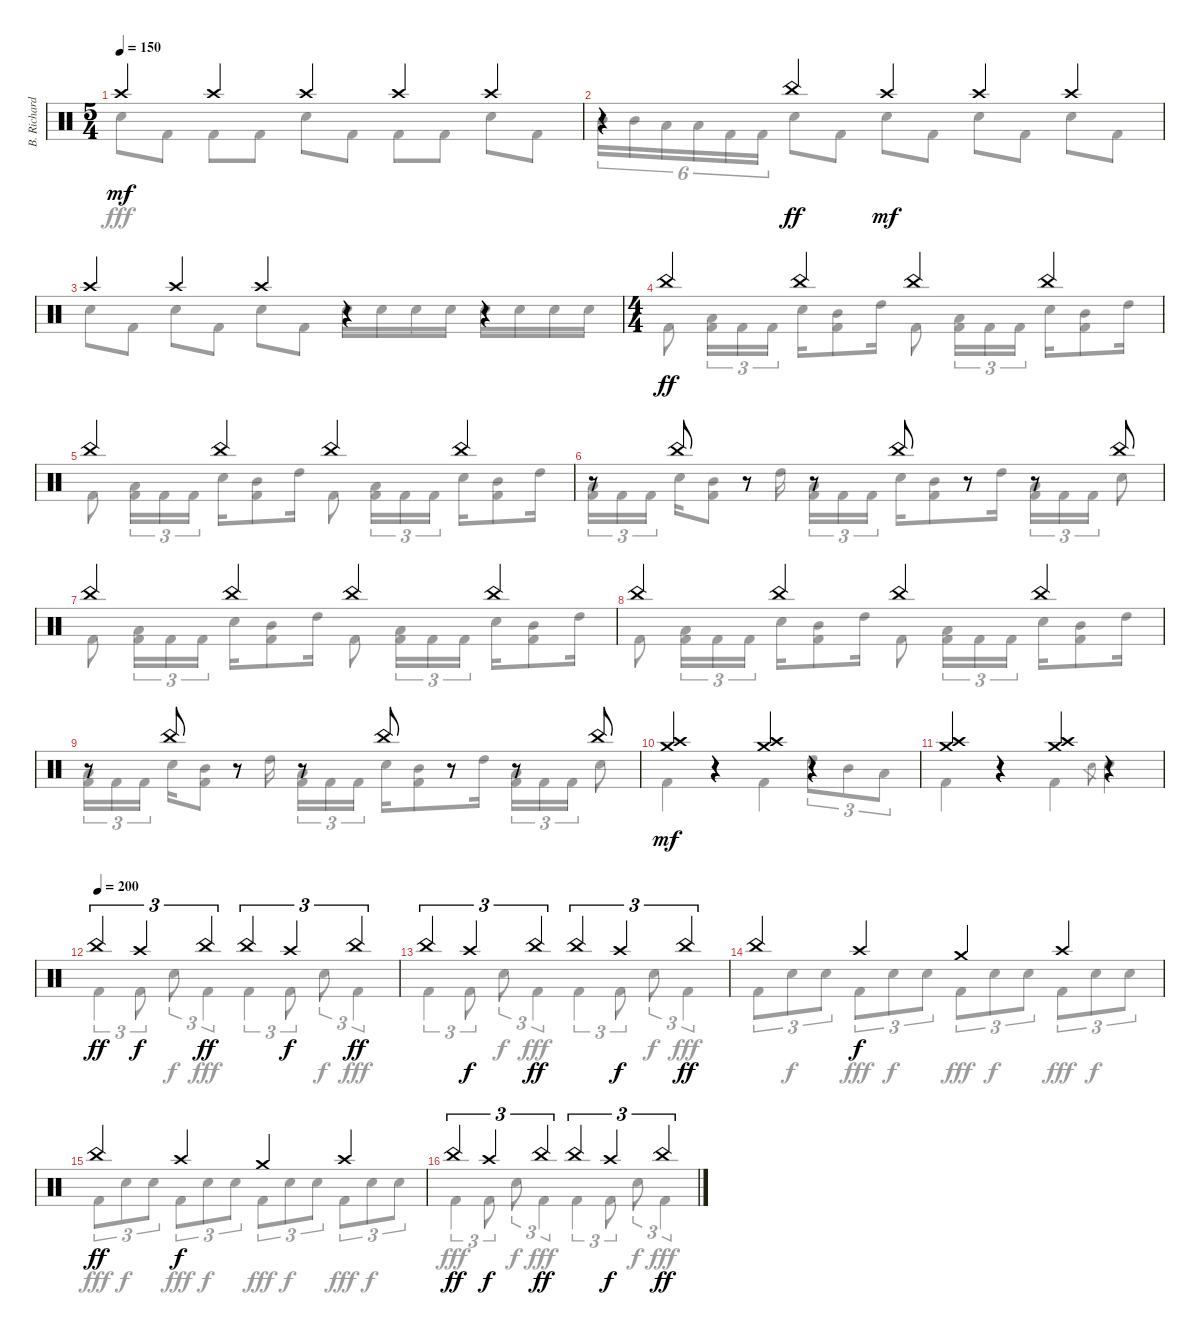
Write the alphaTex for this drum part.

\track ("B. Richardson Drums" "B. Richard") {instrument percussion}
\staff {score}
\articulation defaults
\voice
\ts (5 4)
\tempo 150
\clef neutral
\ks c "Crash high (hit)".4{dy mf} "Crash high (hit)".4 "Crash high (hit)".4 "Crash high (hit)".4 "Crash high (hit)".4
|
r.4 "China (hit)".4{dy ff} "Crash high (hit)".4{dy mf} "Crash high (hit)".4 "Crash high (hit)".4 |
"Crash high (hit)".4 "Crash high (hit)".4 "Crash high (hit)".4 r.4 r.4 |
\ts (4 4)
"China (hit)".4{dy ff} "China (hit)".4 "China (hit)".4 "China (hit)".4 |
"China (hit)".4 "China (hit)".4 "China (hit)".4 "China (hit)".4 |
r.8 "China (hit)".8 r.8 r.8 "China (hit)".8 r.8 r.8 "China (hit)".8 |
"China (hit)".4 "China (hit)".4 "China (hit)".4 "China (hit)".4 |
"China (hit)".4 "China (hit)".4 "China (hit)".4 "China (hit)".4 |
r.8 "China (hit)".8 r.8 r.8 "China (hit)".8 r.8 r.8 "China (hit)".8 |
("Crash high (hit)" "Crash medium (hit)").4{dy mf} r.4 ("Crash high (hit)" "Crash medium (hit)").4 r.4 |
("Crash high (hit)" "Crash medium (hit)").4 r.4 ("Crash high (hit)" "Crash medium (hit)").4 r.4 |
\tempo (200)
"China (hit)".4{tu (3 2) dy ff} "Crash high (hit)".4{tu (3 2) dy f} "China (hit)".4{tu (3 2) dy ff} "China (hit)".4{tu (3 2)} "Crash high (hit)".4{tu (3 2) dy f} "China (hit)".4{tu (3 2) dy ff} |
"China (hit)".4{tu (3 2)} "Crash high (hit)".4{tu (3 2) dy f} "China (hit)".4{tu (3 2) dy ff} "China (hit)".4{tu (3 2)} "Crash high (hit)".4{tu (3 2) dy f} "China (hit)".4{tu (3 2) dy ff} |
"China (hit)".4 "Crash high (hit)".4{dy f} "Crash medium (hit)".4 "Crash high (hit)".4 |
"China (hit)".4{dy ff} "Crash high (hit)".4{dy f} "Crash medium (hit)".4 "Crash high (hit)".4 |
"China (hit)".4{tu (3 2) dy ff} "Crash high (hit)".4{tu (3 2) dy f} "China (hit)".4{tu (3 2) dy ff} "China (hit)".4{tu (3 2)} "Crash high (hit)".4{tu (3 2) dy f} "China (hit)".4{tu (3 2) dy ff}
\voice
\clef neutral
\ottava regular
\simile none
\ks c "Electric Snare (hit)".8{dy fff} "Kick (hit) 2".8 "Kick (hit) 2".8 "Kick (hit) 2".8 "Electric Snare (hit)".8 "Kick (hit) 2".8 "Kick (hit) 2".8 "Kick (hit) 2".8 "Electric Snare (hit)".8 "Kick (hit) 2".8
|
"Mid Tom (hit)".16{tu (6 4)} "Mid Tom (hit)".16{tu (6 4)} "Low Tom (hit)".16{tu (6 4)} "Low Tom (hit)".16{tu (6 4)} "Kick (hit) 2".16{tu (6 4)} "Kick (hit) 2".16{tu (6 4)} "Electric Snare (hit)".8 "Kick (hit) 2".8 "Electric Snare (hit)".8 "Kick (hit) 2".8 "Electric Snare (hit)".8 "Kick (hit) 2".8 "Electric Snare (hit)".8 "Kick (hit) 2".8 |
"Electric Snare (hit)".8 "Kick (hit) 2".8 "Electric Snare (hit)".8 "Kick (hit) 2".8 "Electric Snare (hit)".8 "Kick (hit) 2".8 "Electric Snare (hit)".16 "Electric Snare (hit)".16 "Electric Snare (hit)".16 "Electric Snare (hit)".16 "Electric Snare (hit)".16 "Electric Snare (hit)".16 "Electric Snare (hit)".16 "Electric Snare (hit)".16 |
"Kick (hit) 2".8 ("Low Tom (hit)" "Kick (hit) 2").16{tu (3 2)} "Kick (hit) 2".16{tu (3 2)} "Kick (hit) 2".16{tu (3 2)} "Electric Snare (hit)".16 ("Mid Tom (hit)" "Kick (hit) 2").8 "High Tom (hit)".16 "Kick (hit) 2".8 ("Low Tom (hit)" "Kick (hit) 2").16{tu (3 2)} "Kick (hit) 2".16{tu (3 2)} "Kick (hit) 2".16{tu (3 2)} "Electric Snare (hit)".16 ("Mid Tom (hit)" "Kick (hit) 2").8 "High Tom (hit)".16 |
"Kick (hit) 2".8 ("Low Tom (hit)" "Kick (hit) 2").16{tu (3 2)} "Kick (hit) 2".16{tu (3 2)} "Kick (hit) 2".16{tu (3 2)} "Electric Snare (hit)".16 ("Mid Tom (hit)" "Kick (hit) 2").8 "High Tom (hit)".16 "Kick (hit) 2".8 ("Low Tom (hit)" "Kick (hit) 2").16{tu (3 2)} "Kick (hit) 2".16{tu (3 2)} "Kick (hit) 2".16{tu (3 2)} "Electric Snare (hit)".16 ("Mid Tom (hit)" "Kick (hit) 2").8 "High Tom (hit)".16 |
("Low Tom (hit)" "Kick (hit) 2").16{tu (3 2)} "Kick (hit) 2".16{tu (3 2)} "Kick (hit) 2".16{tu (3 2) beam splitsecondary} "Electric Snare (hit)".16 ("Mid Tom (hit)" "Kick (hit) 2").8 "High Tom (hit)".16{beam splitsecondary} ("Low Tom (hit)" "Kick (hit) 2").16{tu (3 2)} "Kick (hit) 2".16{tu (3 2)} "Kick (hit) 2".16{tu (3 2)} "Electric Snare (hit)".16 ("Mid Tom (hit)" "Kick (hit) 2").8 "High Tom (hit)".16 ("Low Tom (hit)" "Kick (hit) 2").16{tu (3 2)} "Kick (hit) 2".16{tu (3 2)} "Kick (hit) 2".16{tu (3 2)} "Electric Snare (hit)".8 |
"Kick (hit) 2".8 ("Low Tom (hit)" "Kick (hit) 2").16{tu (3 2)} "Kick (hit) 2".16{tu (3 2)} "Kick (hit) 2".16{tu (3 2)} "Electric Snare (hit)".16 ("Mid Tom (hit)" "Kick (hit) 2").8 "High Tom (hit)".16 "Kick (hit) 2".8 ("Low Tom (hit)" "Kick (hit) 2").16{tu (3 2)} "Kick (hit) 2".16{tu (3 2)} "Kick (hit) 2".16{tu (3 2)} "Electric Snare (hit)".16 ("Mid Tom (hit)" "Kick (hit) 2").8 "High Tom (hit)".16 |
"Kick (hit) 2".8 ("Low Tom (hit)" "Kick (hit) 2").16{tu (3 2)} "Kick (hit) 2".16{tu (3 2)} "Kick (hit) 2".16{tu (3 2)} "Electric Snare (hit)".16 ("Mid Tom (hit)" "Kick (hit) 2").8 "High Tom (hit)".16 "Kick (hit) 2".8 ("Low Tom (hit)" "Kick (hit) 2").16{tu (3 2)} "Kick (hit) 2".16{tu (3 2)} "Kick (hit) 2".16{tu (3 2)} "Electric Snare (hit)".16 ("Mid Tom (hit)" "Kick (hit) 2").8 "High Tom (hit)".16 |
("Low Tom (hit)" "Kick (hit) 2").16{tu (3 2)} "Kick (hit) 2".16{tu (3 2)} "Kick (hit) 2".16{tu (3 2) beam splitsecondary} "Electric Snare (hit)".16 ("Mid Tom (hit)" "Kick (hit) 2").8 "High Tom (hit)".16{beam splitsecondary} ("Low Tom (hit)" "Kick (hit) 2").16{tu (3 2)} "Kick (hit) 2".16{tu (3 2)} "Kick (hit) 2".16{tu (3 2)} "Electric Snare (hit)".16 ("Mid Tom (hit)" "Kick (hit) 2").8 "High Tom (hit)".16 ("Low Tom (hit)" "Kick (hit) 2").16{tu (3 2)} "Kick (hit) 2".16{tu (3 2)} "Kick (hit) 2".16{tu (3 2)} "Electric Snare (hit)".8 |
"Kick (hit) 2".4 r.4 "Kick (hit) 2".4 "High Tom (hit)".8{tu (3 2)} "Mid Tom (hit)".8{tu (3 2)} "Low Tom (hit)".8{tu (3 2)} |
"Kick (hit) 2".4 r.4 "Kick (hit) 2".4 "Electric Snare (hit)".8{gr} "Electric Snare (hit)".4 |
"Kick (hit) 2".4{tu (3 2)} "Kick (hit) 2".8{tu (3 2)} "Electric Snare (hit)".8{tu (3 2) dy f} "Kick (hit) 2".4{tu (3 2) dy fff} "Kick (hit) 2".4{tu (3 2)} "Kick (hit) 2".8{tu (3 2)} "Electric Snare (hit)".8{tu (3 2) dy f} "Kick (hit) 2".4{tu (3 2) dy fff} |
"Kick (hit) 2".4{tu (3 2)} "Kick (hit) 2".8{tu (3 2)} "Electric Snare (hit)".8{tu (3 2) dy f} "Kick (hit) 2".4{tu (3 2) dy fff} "Kick (hit) 2".4{tu (3 2)} "Kick (hit) 2".8{tu (3 2)} "Electric Snare (hit)".8{tu (3 2) dy f} "Kick (hit) 2".4{tu (3 2) dy fff} |
"Kick (hit) 2".8{tu (3 2)} "Electric Snare (hit)".8{tu (3 2) dy f} "Electric Snare (hit)".8{tu (3 2)} "Kick (hit) 2".8{tu (3 2) dy fff} "Electric Snare (hit)".8{tu (3 2) dy f} "Electric Snare (hit)".8{tu (3 2)} "Kick (hit) 2".8{tu (3 2) dy fff} "Electric Snare (hit)".8{tu (3 2) dy f} "Electric Snare (hit)".8{tu (3 2)} "Kick (hit) 2".8{tu (3 2) dy fff} "Electric Snare (hit)".8{tu (3 2) dy f} "Electric Snare (hit)".8{tu (3 2)} |
"Kick (hit) 2".8{tu (3 2) dy fff} "Electric Snare (hit)".8{tu (3 2) dy f} "Electric Snare (hit)".8{tu (3 2)} "Kick (hit) 2".8{tu (3 2) dy fff} "Electric Snare (hit)".8{tu (3 2) dy f} "Electric Snare (hit)".8{tu (3 2)} "Kick (hit) 2".8{tu (3 2) dy fff} "Electric Snare (hit)".8{tu (3 2) dy f} "Electric Snare (hit)".8{tu (3 2)} "Kick (hit) 2".8{tu (3 2) dy fff} "Electric Snare (hit)".8{tu (3 2) dy f} "Electric Snare (hit)".8{tu (3 2)} |
"Kick (hit) 2".4{tu (3 2) dy fff} "Kick (hit) 2".8{tu (3 2)} "Electric Snare (hit)".8{tu (3 2) dy f} "Kick (hit) 2".4{tu (3 2) dy fff} "Kick (hit) 2".4{tu (3 2)} "Kick (hit) 2".8{tu (3 2)} "Electric Snare (hit)".8{tu (3 2) dy f} "Kick (hit) 2".4{tu (3 2) dy fff}
